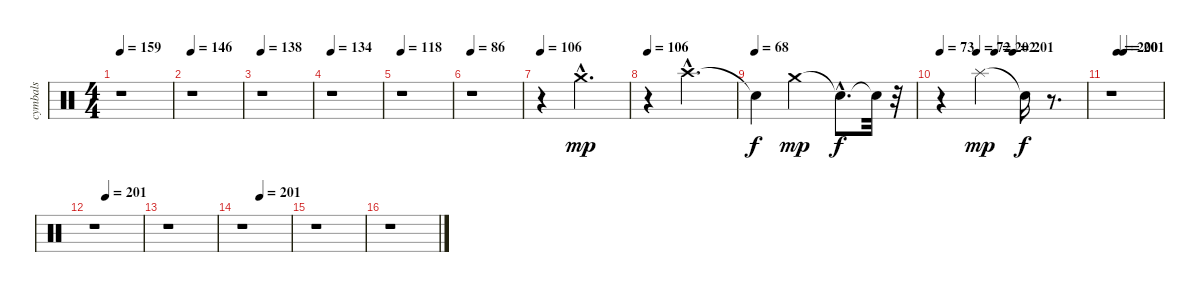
\track ("cymbals" "cymbals") {instrument percussion}
\staff {score}
\articulation defaults
\ts (4 4)
\tempo 159
\clef neutral
\ks c
r.1{dy mp} |
\tempo 146
r.1 |
\tempo 138
r.1 |
\tempo 134
r.1 |
\tempo 118
r.1 |
\tempo 86
r.1 |
\tempo 106
r.4 "Crash medium (hit)"{hac}.2{d} |
\tempo 106
r.4 "Crash high (hit)"{hac}.2{d} |
\tempo (68)
"Snare (hit)"{t}.4{dy f} "Crash medium (hit)".2{dy mp} "Snare (hit)"{hac t}.8{d dy f} "Snare (hit)"{t}.32 r.32 |
\tempo 73
\tempo (72 0.25)
\tempo (202 0.375)
\tempo (201 0.5)
r.4 "Splash (hit)".2{dy mp} "Snare (hit)"{t}.16{dy f} r.8{d} |
\tempo (200 0.125)
\tempo (201 0.25)
r.1 |
\tempo (201 0.25)
r.1 |
r.1 |
\tempo (201 0.375)
r.1 |
r.1 |
r.1
